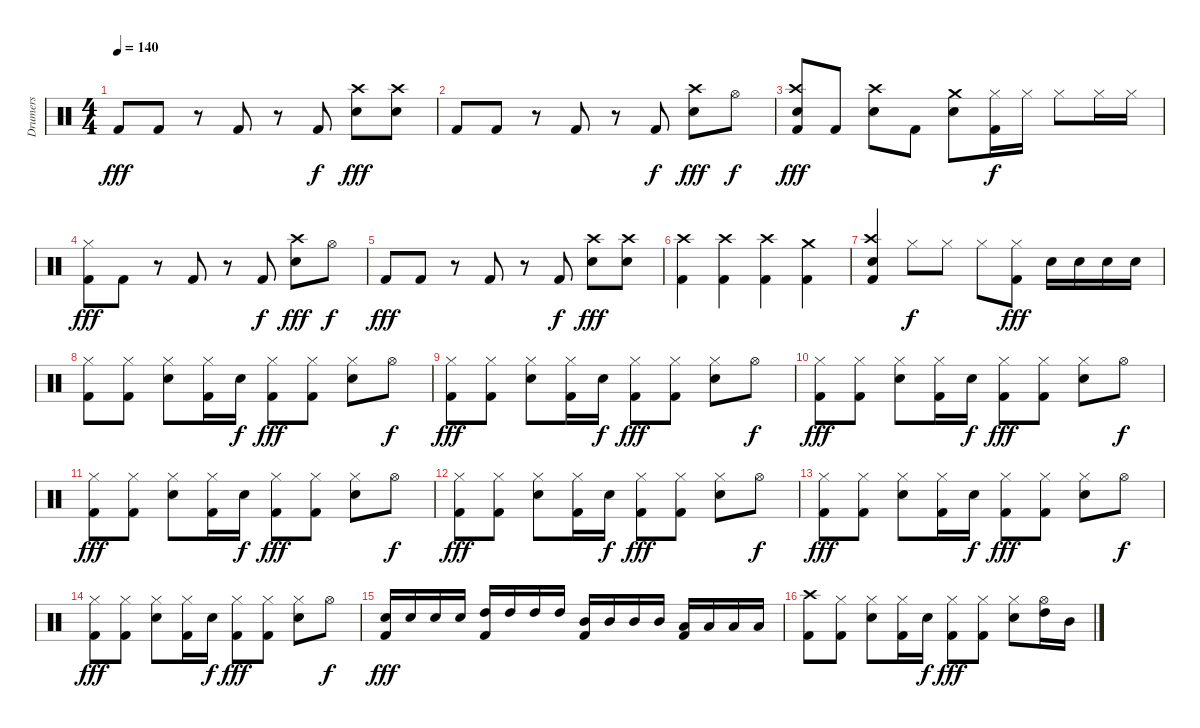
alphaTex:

\track ("Drumers" "Drumers") {instrument percussion}
\staff {score}
\articulation defaults
\ts (4 4)
\tempo 140
\clef neutral
\ks c "Kick (hit) 2".8{dy fff} "Kick (hit) 2".8
r.8 "Kick (hit) 2".8 r.8 "Kick (hit) 2".8{dy f} ("Crash high (hit)" "Electric Snare (hit)").8{dy fff} ("Crash high (hit)" "Electric Snare (hit)").8 |
"Kick (hit) 2".8 "Kick (hit) 2".8 r.8 "Kick (hit) 2".8 r.8 "Kick (hit) 2".8{dy f} ("Crash high (hit)" "Electric Snare (hit)").8{dy fff} "Hi-Hat (open)".8{dy f} |
("Crash high (hit)" "Electric Snare (hit)" "Kick (hit) 2").8{dy fff} "Kick (hit) 2".8 ("Crash high (hit)" "Electric Snare (hit)").8 "Kick (hit) 2".8 ("Crash medium (hit)" "Electric Snare (hit)").8 ("Hi-Hat (closed)" "Kick (hit) 2").16{dy f} "Hi-Hat (closed)".16 "Hi-Hat (closed)".8 "Hi-Hat (closed)".16 "Hi-Hat (closed)".16 |
("Hi-Hat (closed)" "Kick (hit) 2").8{dy fff} "Kick (hit) 2".8 r.8 "Kick (hit) 2".8 r.8 "Kick (hit) 2".8{dy f} ("Crash high (hit)" "Electric Snare (hit)").8{dy fff} "Hi-Hat (open)".8{dy f} |
"Kick (hit) 2".8{dy fff} "Kick (hit) 2".8 r.8 "Kick (hit) 2".8 r.8 "Kick (hit) 2".8{dy f} ("Crash high (hit)" "Electric Snare (hit)").8{dy fff} ("Crash high (hit)" "Electric Snare (hit)").8 |
("Crash high (hit)" "Kick (hit) 2").4 ("Crash high (hit)" "Kick (hit) 2").4 ("Crash high (hit)" "Kick (hit) 2").4 ("Crash medium (hit)" "Kick (hit) 2").4 |
("Crash high (hit)" "Electric Snare (hit)" "Kick (hit) 2").4 "Hi-Hat (closed)".8{dy f} "Hi-Hat (closed)".8 "Hi-Hat (closed)".8 ("Hi-Hat (closed)" "Kick (hit) 2").8{dy fff} "Electric Snare (hit)".16 "Electric Snare (hit)".16 "Electric Snare (hit)".16 "Electric Snare (hit)".16 |
("Hi-Hat (closed)" "Kick (hit) 2").8 ("Hi-Hat (closed)" "Kick (hit) 2").8 ("Hi-Hat (closed)" "Electric Snare (hit)").8 ("Hi-Hat (closed)" "Kick (hit) 2").16 "Electric Snare (hit)".16{dy f} ("Hi-Hat (closed)" "Kick (hit) 2").8{dy fff} ("Hi-Hat (closed)" "Kick (hit) 2").8 ("Hi-Hat (closed)" "Electric Snare (hit)").8 "Hi-Hat (open)".8{dy f} |
("Hi-Hat (closed)" "Kick (hit) 2").8{dy fff} ("Hi-Hat (closed)" "Kick (hit) 2").8 ("Hi-Hat (closed)" "Electric Snare (hit)").8 ("Hi-Hat (closed)" "Kick (hit) 2").16 "Electric Snare (hit)".16{dy f} ("Hi-Hat (closed)" "Kick (hit) 2").8{dy fff} ("Hi-Hat (closed)" "Kick (hit) 2").8 ("Hi-Hat (closed)" "Electric Snare (hit)").8 "Hi-Hat (open)".8{dy f} |
("Hi-Hat (closed)" "Kick (hit) 2").8{dy fff} ("Hi-Hat (closed)" "Kick (hit) 2").8 ("Hi-Hat (closed)" "Electric Snare (hit)").8 ("Hi-Hat (closed)" "Kick (hit) 2").16 "Electric Snare (hit)".16{dy f} ("Hi-Hat (closed)" "Kick (hit) 2").8{dy fff} ("Hi-Hat (closed)" "Kick (hit) 2").8 ("Hi-Hat (closed)" "Electric Snare (hit)").8 "Hi-Hat (open)".8{dy f} |
("Hi-Hat (closed)" "Kick (hit) 2").8{dy fff} ("Hi-Hat (closed)" "Kick (hit) 2").8 ("Hi-Hat (closed)" "Electric Snare (hit)").8 ("Hi-Hat (closed)" "Kick (hit) 2").16 "Electric Snare (hit)".16{dy f} ("Hi-Hat (closed)" "Kick (hit) 2").8{dy fff} ("Hi-Hat (closed)" "Kick (hit) 2").8 ("Hi-Hat (closed)" "Electric Snare (hit)").8 "Hi-Hat (open)".8{dy f} |
("Hi-Hat (closed)" "Kick (hit) 2").8{dy fff} ("Hi-Hat (closed)" "Kick (hit) 2").8 ("Hi-Hat (closed)" "Electric Snare (hit)").8 ("Hi-Hat (closed)" "Kick (hit) 2").16 "Electric Snare (hit)".16{dy f} ("Hi-Hat (closed)" "Kick (hit) 2").8{dy fff} ("Hi-Hat (closed)" "Kick (hit) 2").8 ("Hi-Hat (closed)" "Electric Snare (hit)").8 "Hi-Hat (open)".8{dy f} |
("Hi-Hat (closed)" "Kick (hit) 2").8{dy fff} ("Hi-Hat (closed)" "Kick (hit) 2").8 ("Hi-Hat (closed)" "Electric Snare (hit)").8 ("Hi-Hat (closed)" "Kick (hit) 2").16 "Electric Snare (hit)".16{dy f} ("Hi-Hat (closed)" "Kick (hit) 2").8{dy fff} ("Hi-Hat (closed)" "Kick (hit) 2").8 ("Hi-Hat (closed)" "Electric Snare (hit)").8 "Hi-Hat (open)".8{dy f} |
("Hi-Hat (closed)" "Kick (hit) 2").8{dy fff} ("Hi-Hat (closed)" "Kick (hit) 2").8 ("Hi-Hat (closed)" "Electric Snare (hit)").8 ("Hi-Hat (closed)" "Kick (hit) 2").16 "Electric Snare (hit)".16{dy f} ("Hi-Hat (closed)" "Kick (hit) 2").8{dy fff} ("Hi-Hat (closed)" "Kick (hit) 2").8 ("Hi-Hat (closed)" "Electric Snare (hit)").8 "Hi-Hat (open)".8{dy f} |
("Electric Snare (hit)" "Kick (hit) 2").16{dy fff} "Electric Snare (hit)".16 "Electric Snare (hit)".16 "Electric Snare (hit)".16 ("High Tom (hit)" "Kick (hit) 2").16 "High Tom (hit)".16 "High Tom (hit)".16 "High Tom (hit)".16 ("Mid Tom (hit)" "Kick (hit) 2").16 "Mid Tom (hit)".16 "Mid Tom (hit)".16 "Mid Tom (hit)".16 ("Low Tom (hit)" "Kick (hit) 2").16 "Low Tom (hit)".16 "Low Tom (hit)".16 "Low Tom (hit)".16 |
("Crash high (hit)" "Kick (hit) 2").8 ("Hi-Hat (closed)" "Kick (hit) 2").8 ("Hi-Hat (closed)" "Electric Snare (hit)").8 ("Hi-Hat (closed)" "Kick (hit) 2").16 "Electric Snare (hit)".16{dy f} ("Hi-Hat (closed)" "Kick (hit) 2").8{dy fff} ("Hi-Hat (closed)" "Kick (hit) 2").8 ("Hi-Hat (closed)" "Electric Snare (hit)").8 ("Hi-Hat (open)" "High Tom (hit)").16 "Mid Tom (hit)".16
